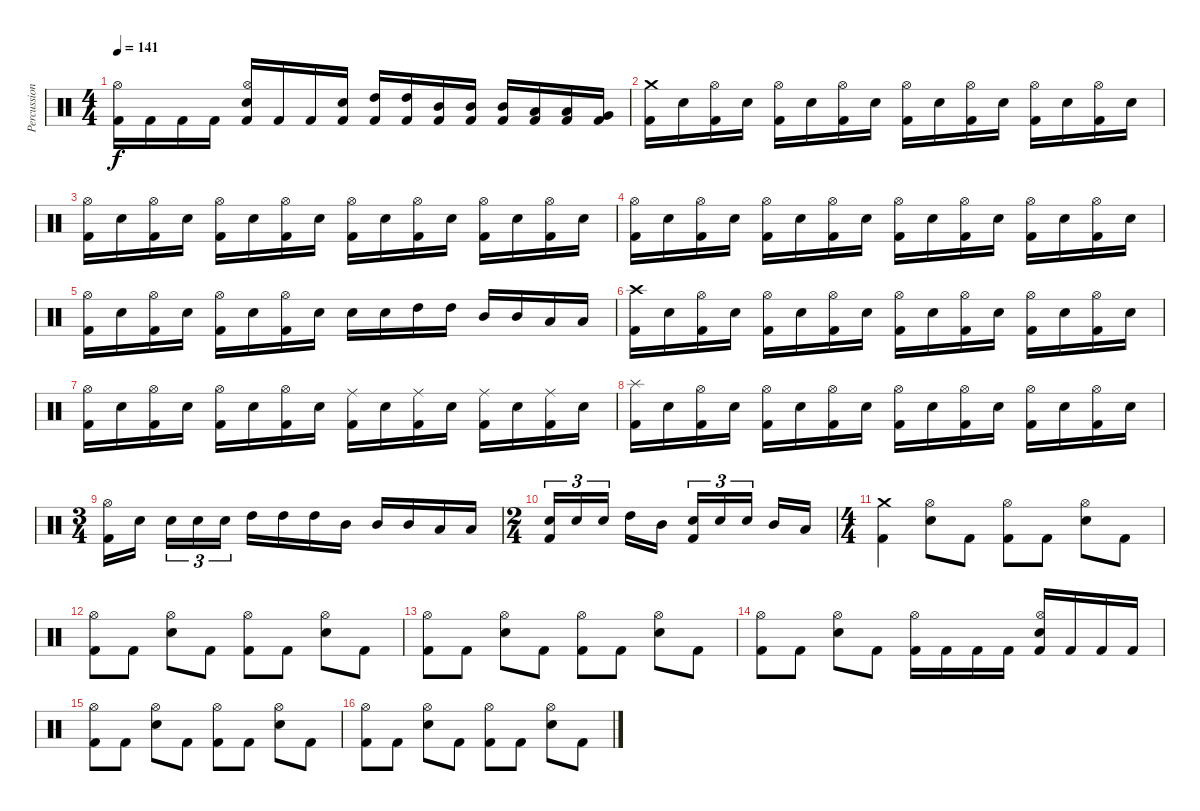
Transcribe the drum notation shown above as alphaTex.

\track ("Percussion" "Percussion") {instrument percussion}
\staff {score}
\articulation defaults
\ts (4 4)
\tempo 141
\clef neutral
\ks c
("Kick (hit) 2" "Hi-Hat (open)").16{dy f} "Kick (hit) 2".16 "Kick (hit) 2".16 "Kick (hit) 2".16 ("Kick (hit) 2" "Electric Snare (hit)" "Hi-Hat (open)").16 "Kick (hit) 2".16 "Kick (hit) 2".16 ("Kick (hit) 2" "Electric Snare (hit)").16 ("Kick (hit) 2" "High Tom (hit)").16 ("Kick (hit) 2" "High Tom (hit)").16 ("Kick (hit) 2" "Mid Tom (hit)").16 ("Kick (hit) 2" "Mid Tom (hit)").16 ("Kick (hit) 2" "Mid Tom (hit)").16 ("Kick (hit) 2" "Low Tom (hit)").16 ("Kick (hit) 2" "Low Tom (hit)").16 ("Kick (hit) 2" "Very Low Tom (hit)").16 |
("Kick (hit) 2" "Crash medium (hit)").16 "Electric Snare (hit)".16 ("Kick (hit) 2" "Hi-Hat (open)").16 "Electric Snare (hit)".16 ("Kick (hit) 2" "Hi-Hat (open)").16 "Electric Snare (hit)".16 ("Kick (hit) 2" "Hi-Hat (open)").16 "Electric Snare (hit)".16 ("Kick (hit) 2" "Hi-Hat (open)").16 "Electric Snare (hit)".16 ("Kick (hit) 2" "Hi-Hat (open)").16 "Electric Snare (hit)".16 ("Kick (hit) 2" "Hi-Hat (open)").16 "Electric Snare (hit)".16 ("Kick (hit) 2" "Hi-Hat (open)").16 "Electric Snare (hit)".16 |
("Kick (hit) 2" "Hi-Hat (open)").16 "Electric Snare (hit)".16 ("Kick (hit) 2" "Hi-Hat (open)").16 "Electric Snare (hit)".16 ("Kick (hit) 2" "Hi-Hat (open)").16 "Electric Snare (hit)".16 ("Kick (hit) 2" "Hi-Hat (open)").16 "Electric Snare (hit)".16 ("Kick (hit) 2" "Hi-Hat (open)").16 "Electric Snare (hit)".16 ("Kick (hit) 2" "Hi-Hat (open)").16 "Electric Snare (hit)".16 ("Kick (hit) 2" "Hi-Hat (open)").16 "Electric Snare (hit)".16 ("Kick (hit) 2" "Hi-Hat (open)").16 "Electric Snare (hit)".16 |
("Kick (hit) 2" "Hi-Hat (open)").16 "Electric Snare (hit)".16 ("Kick (hit) 2" "Hi-Hat (open)").16 "Electric Snare (hit)".16 ("Kick (hit) 2" "Hi-Hat (open)").16 "Electric Snare (hit)".16 ("Kick (hit) 2" "Hi-Hat (open)").16 "Electric Snare (hit)".16 ("Kick (hit) 2" "Hi-Hat (open)").16 "Electric Snare (hit)".16 ("Kick (hit) 2" "Hi-Hat (open)").16 "Electric Snare (hit)".16 ("Kick (hit) 2" "Hi-Hat (open)").16 "Electric Snare (hit)".16 ("Kick (hit) 2" "Hi-Hat (open)").16 "Electric Snare (hit)".16 |
("Kick (hit) 2" "Hi-Hat (open)").16 "Electric Snare (hit)".16 ("Kick (hit) 2" "Hi-Hat (open)").16 "Electric Snare (hit)".16 ("Kick (hit) 2" "Hi-Hat (open)").16 "Electric Snare (hit)".16 ("Kick (hit) 2" "Hi-Hat (open)").16 "Electric Snare (hit)".16 "Electric Snare (hit)".16 "Electric Snare (hit)".16 "High Tom (hit)".16 "High Tom (hit)".16 "Mid Tom (hit)".16 "Mid Tom (hit)".16 "Low Tom (hit)".16 "Low Tom (hit)".16 |
("Kick (hit) 2" "Crash high (hit)").16 "Electric Snare (hit)".16 ("Kick (hit) 2" "Hi-Hat (open)").16 "Electric Snare (hit)".16 ("Kick (hit) 2" "Hi-Hat (open)").16 "Electric Snare (hit)".16 ("Kick (hit) 2" "Hi-Hat (open)").16 "Electric Snare (hit)".16 ("Kick (hit) 2" "Hi-Hat (open)").16 "Electric Snare (hit)".16 ("Kick (hit) 2" "Hi-Hat (open)").16 "Electric Snare (hit)".16 ("Kick (hit) 2" "Hi-Hat (open)").16 "Electric Snare (hit)".16 ("Kick (hit) 2" "Hi-Hat (open)").16 "Electric Snare (hit)".16 |
("Kick (hit) 2" "Hi-Hat (open)").16 "Electric Snare (hit)".16 ("Kick (hit) 2" "Hi-Hat (open)").16 "Electric Snare (hit)".16 ("Kick (hit) 2" "Hi-Hat (open)").16 "Electric Snare (hit)".16 ("Kick (hit) 2" "Hi-Hat (open)").16 "Electric Snare (hit)".16 ("Kick (hit) 2" "Ride (middle)").16 "Electric Snare (hit)".16 ("Kick (hit) 2" "Ride (middle)").16 "Electric Snare (hit)".16 ("Kick (hit) 2" "Ride (middle)").16 "Electric Snare (hit)".16 ("Kick (hit) 2" "Ride (middle)").16 "Electric Snare (hit)".16 |
("Kick (hit) 2" "Splash (hit)").16 "Electric Snare (hit)".16 ("Kick (hit) 2" "Hi-Hat (open)").16 "Electric Snare (hit)".16 ("Kick (hit) 2" "Hi-Hat (open)").16 "Electric Snare (hit)".16 ("Kick (hit) 2" "Hi-Hat (open)").16 "Electric Snare (hit)".16 ("Kick (hit) 2" "Hi-Hat (open)").16 "Electric Snare (hit)".16 ("Kick (hit) 2" "Hi-Hat (open)").16 "Electric Snare (hit)".16 ("Kick (hit) 2" "Hi-Hat (open)").16 "Electric Snare (hit)".16 ("Kick (hit) 2" "Hi-Hat (open)").16 "Electric Snare (hit)".16 |
\ts (3 4)
("Kick (hit) 2" "Hi-Hat (open)").16 "Electric Snare (hit)".16 "Electric Snare (hit)".16{tu (3 2)} "Electric Snare (hit)".16{tu (3 2)} "Electric Snare (hit)".16{tu (3 2)} "High Tom (hit)".16 "High Tom (hit)".16 "High Tom (hit)".16 "Mid Tom (hit)".16 "Mid Tom (hit)".16 "Mid Tom (hit)".16 "Low Tom (hit)".16 "Low Tom (hit)".16 |
\ts (2 4)
("Kick (hit) 2" "Electric Snare (hit)").16{tu (3 2)} "Electric Snare (hit)".16{tu (3 2)} "Electric Snare (hit)".16{tu (3 2)} "High Tom (hit)".16 "Mid Tom (hit)".16 ("Kick (hit) 2" "Electric Snare (hit)").16{tu (3 2)} "Electric Snare (hit)".16{tu (3 2)} "Electric Snare (hit)".16{tu (3 2)} "Mid Tom (hit)".16 "Low Tom (hit)".16 |
\ts (4 4)
("Kick (hit) 2" "Crash medium (hit)").4 ("Electric Snare (hit)" "Hi-Hat (open)").8 "Kick (hit) 2".8 ("Kick (hit) 2" "Hi-Hat (open)").8 "Kick (hit) 2".8 ("Electric Snare (hit)" "Hi-Hat (open)").8 "Kick (hit) 2".8 |
("Kick (hit) 2" "Hi-Hat (open)").8 "Kick (hit) 2".8 ("Electric Snare (hit)" "Hi-Hat (open)").8 "Kick (hit) 2".8 ("Kick (hit) 2" "Hi-Hat (open)").8 "Kick (hit) 2".8 ("Electric Snare (hit)" "Hi-Hat (open)").8 "Kick (hit) 2".8 |
("Kick (hit) 2" "Hi-Hat (open)").8 "Kick (hit) 2".8 ("Electric Snare (hit)" "Hi-Hat (open)").8 "Kick (hit) 2".8 ("Kick (hit) 2" "Hi-Hat (open)").8 "Kick (hit) 2".8 ("Electric Snare (hit)" "Hi-Hat (open)").8 "Kick (hit) 2".8 |
("Kick (hit) 2" "Hi-Hat (open)").8 "Kick (hit) 2".8 ("Electric Snare (hit)" "Hi-Hat (open)").8 "Kick (hit) 2".8 ("Kick (hit) 2" "Hi-Hat (open)").16 "Kick (hit) 2".16 "Kick (hit) 2".16 "Kick (hit) 2".16 ("Kick (hit) 2" "Electric Snare (hit)" "Hi-Hat (open)").16 "Kick (hit) 2".16 "Kick (hit) 2".16 "Kick (hit) 2".16 |
("Kick (hit) 2" "Hi-Hat (open)").8 "Kick (hit) 2".8 ("Electric Snare (hit)" "Hi-Hat (open)").8 "Kick (hit) 2".8 ("Kick (hit) 2" "Hi-Hat (open)").8 "Kick (hit) 2".8 ("Electric Snare (hit)" "Hi-Hat (open)").8 "Kick (hit) 2".8 |
("Kick (hit) 2" "Hi-Hat (open)").8 "Kick (hit) 2".8 ("Electric Snare (hit)" "Hi-Hat (open)").8 "Kick (hit) 2".8 ("Kick (hit) 2" "Hi-Hat (open)").8 "Kick (hit) 2".8 ("Electric Snare (hit)" "Hi-Hat (open)").8 "Kick (hit) 2".8
